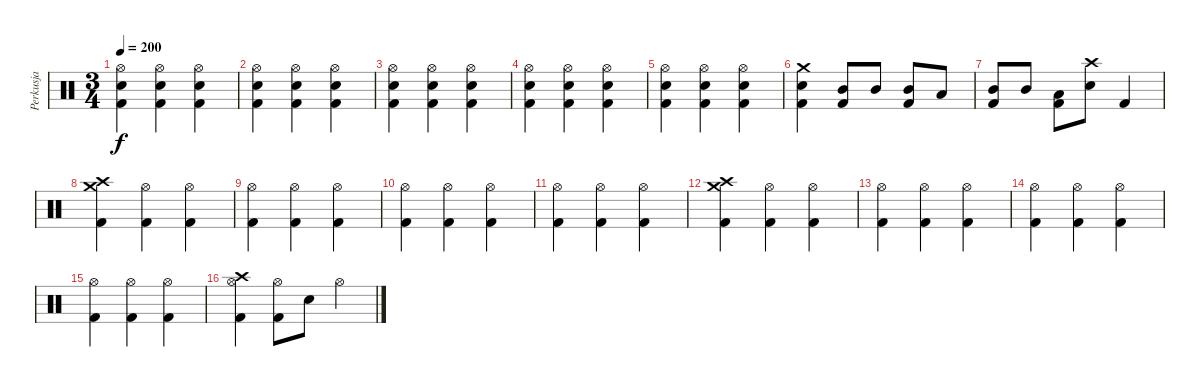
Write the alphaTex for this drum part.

\track ("Perkusja" "Perkusja") {instrument percussion}
\staff {score}
\articulation defaults
\ts (3 4)
\tempo 200
\clef neutral
\ks c
("Hi-Hat (open)" "Electric Snare (hit)" "Kick (hit) 2").4{dy f} ("Hi-Hat (open)" "Electric Snare (hit)" "Kick (hit) 2").4 ("Hi-Hat (open)" "Electric Snare (hit)" "Kick (hit) 2").4 |
("Hi-Hat (open)" "Electric Snare (hit)" "Kick (hit) 2").4 ("Hi-Hat (open)" "Electric Snare (hit)" "Kick (hit) 2").4 ("Hi-Hat (open)" "Electric Snare (hit)" "Kick (hit) 2").4 |
("Hi-Hat (open)" "Electric Snare (hit)" "Kick (hit) 2").4 ("Hi-Hat (open)" "Electric Snare (hit)" "Kick (hit) 2").4 ("Hi-Hat (open)" "Electric Snare (hit)" "Kick (hit) 2").4 |
("Hi-Hat (open)" "Electric Snare (hit)" "Kick (hit) 2").4 ("Hi-Hat (open)" "Electric Snare (hit)" "Kick (hit) 2").4 ("Hi-Hat (open)" "Electric Snare (hit)" "Kick (hit) 2").4 |
("Hi-Hat (open)" "Electric Snare (hit)" "Kick (hit) 2").4 ("Hi-Hat (open)" "Electric Snare (hit)" "Kick (hit) 2").4 ("Hi-Hat (open)" "Electric Snare (hit)" "Kick (hit) 2").4 |
("Crash medium (hit)" "Electric Snare (hit)" "Kick (hit) 2").4 ("Mid Tom (hit)" "Kick (hit) 2").8 "Mid Tom (hit)".8 ("Mid Tom (hit)" "Kick (hit) 2").8 "Low Tom (hit)".8 |
("Mid Tom (hit)" "Kick (hit) 2").8 "Mid Tom (hit)".8 ("Low Tom (hit)" "Kick (hit) 2").8 ("Crash high (hit)" "Electric Snare (hit)").8 "Kick (hit) 2".4 |
("Crash high (hit)" "Crash medium (hit)" "Kick (hit) 2").4 ("Hi-Hat (open)" "Kick (hit) 2").4 ("Hi-Hat (open)" "Kick (hit) 2").4 |
("Hi-Hat (open)" "Kick (hit) 2").4 ("Hi-Hat (open)" "Kick (hit) 2").4 ("Hi-Hat (open)" "Kick (hit) 2").4 |
("Hi-Hat (open)" "Kick (hit) 2").4 ("Hi-Hat (open)" "Kick (hit) 2").4 ("Hi-Hat (open)" "Kick (hit) 2").4 |
("Hi-Hat (open)" "Kick (hit) 2").4 ("Hi-Hat (open)" "Kick (hit) 2").4 ("Hi-Hat (open)" "Kick (hit) 2").4 |
("Crash high (hit)" "Crash medium (hit)" "Kick (hit) 2").4 ("Hi-Hat (open)" "Kick (hit) 2").4 ("Hi-Hat (open)" "Kick (hit) 2").4 |
("Hi-Hat (open)" "Kick (hit) 2").4 ("Hi-Hat (open)" "Kick (hit) 2").4 ("Hi-Hat (open)" "Kick (hit) 2").4 |
("Hi-Hat (open)" "Kick (hit) 2").4 ("Hi-Hat (open)" "Kick (hit) 2").4 ("Hi-Hat (open)" "Kick (hit) 2").4 |
("Hi-Hat (open)" "Kick (hit) 2").4 ("Hi-Hat (open)" "Kick (hit) 2").4 ("Hi-Hat (open)" "Kick (hit) 2").4 |
("Crash high (hit)" "Hi-Hat (open)" "Kick (hit) 2").4 ("Hi-Hat (open)" "Kick (hit) 2").8 "Electric Snare (hit)".8 "Hi-Hat (open)".4
